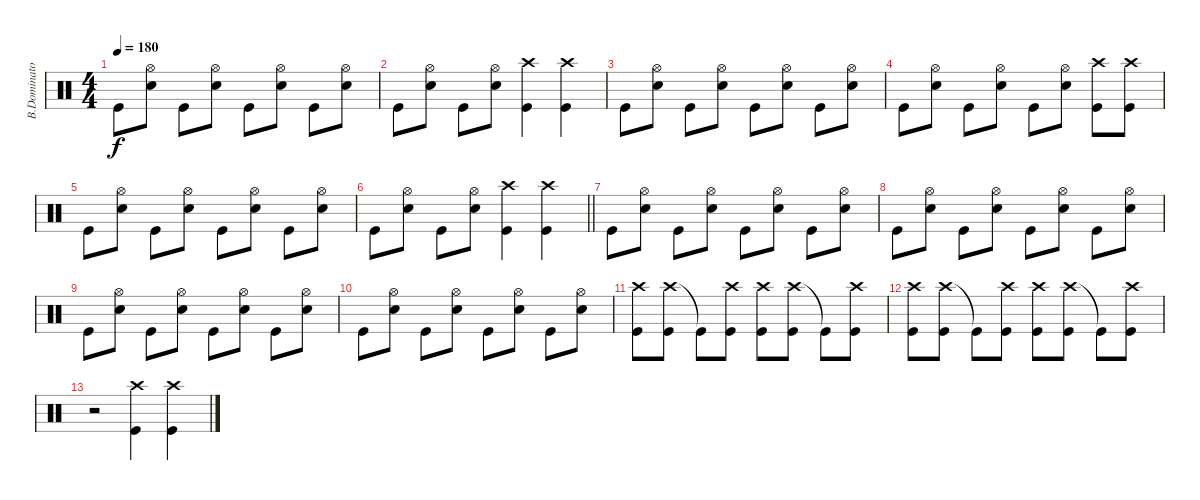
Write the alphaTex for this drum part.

\track ("B.Dominator" "B.Dominato") {instrument percussion}
\staff {score}
\articulation defaults
\ts (4 4)
\tempo 180
\clef neutral
\ks c "Kick (hit)".8{dy f}
("Hi-Hat (open)" "Snare (hit) 2").8 "Kick (hit)".8 ("Hi-Hat (open)" "Snare (hit) 2").8 "Kick (hit)".8 ("Hi-Hat (open)" "Snare (hit) 2").8 "Kick (hit)".8 ("Hi-Hat (open)" "Snare (hit) 2").8 |
"Kick (hit)".8 ("Hi-Hat (open)" "Snare (hit) 2").8 "Kick (hit)".8 ("Hi-Hat (open)" "Snare (hit) 2").8 ("Crash high (hit)" "Kick (hit)").4 ("Crash high (hit)" "Kick (hit)").4 |
"Kick (hit)".8 ("Hi-Hat (open)" "Snare (hit) 2").8 "Kick (hit)".8 ("Hi-Hat (open)" "Snare (hit) 2").8 "Kick (hit)".8 ("Hi-Hat (open)" "Snare (hit) 2").8 "Kick (hit)".8 ("Hi-Hat (open)" "Snare (hit) 2").8 |
"Kick (hit)".8 ("Hi-Hat (open)" "Snare (hit) 2").8 "Kick (hit)".8 ("Hi-Hat (open)" "Snare (hit) 2").8 "Kick (hit)".8 ("Hi-Hat (open)" "Snare (hit) 2").8 ("Crash high (hit)" "Kick (hit)").8 ("Crash high (hit)" "Kick (hit)").8 |
"Kick (hit)".8 ("Hi-Hat (open)" "Snare (hit) 2").8 "Kick (hit)".8 ("Hi-Hat (open)" "Snare (hit) 2").8 "Kick (hit)".8 ("Hi-Hat (open)" "Snare (hit) 2").8 "Kick (hit)".8 ("Hi-Hat (open)" "Snare (hit) 2").8 |
\barLineRight lightlight "Kick (hit)".8
("Hi-Hat (open)" "Snare (hit) 2").8 "Kick (hit)".8 ("Hi-Hat (open)" "Snare (hit) 2").8 ("Crash high (hit)" "Kick (hit)").4 ("Crash high (hit)" "Kick (hit)").4 |
"Kick (hit)".8 ("Hi-Hat (open)" "Snare (hit) 2").8 "Kick (hit)".8 ("Hi-Hat (open)" "Snare (hit) 2").8 "Kick (hit)".8 ("Hi-Hat (open)" "Snare (hit) 2").8 "Kick (hit)".8 ("Hi-Hat (open)" "Snare (hit) 2").8 |
"Kick (hit)".8 ("Hi-Hat (open)" "Snare (hit) 2").8 "Kick (hit)".8 ("Hi-Hat (open)" "Snare (hit) 2").8 "Kick (hit)".8 ("Hi-Hat (open)" "Snare (hit) 2").8 "Kick (hit)".8 ("Hi-Hat (open)" "Snare (hit) 2").8 |
"Kick (hit)".8 ("Hi-Hat (open)" "Snare (hit) 2").8 "Kick (hit)".8 ("Hi-Hat (open)" "Snare (hit) 2").8 "Kick (hit)".8 ("Hi-Hat (open)" "Snare (hit) 2").8 "Kick (hit)".8 ("Hi-Hat (open)" "Snare (hit) 2").8 |
"Kick (hit)".8 ("Hi-Hat (open)" "Snare (hit) 2").8 "Kick (hit)".8 ("Hi-Hat (open)" "Snare (hit) 2").8 "Kick (hit)".8 ("Hi-Hat (open)" "Snare (hit) 2").8 "Kick (hit)".8 ("Hi-Hat (open)" "Snare (hit) 2").8 |
("Crash high (hit)" "Kick (hit)").8 ("Crash high (hit)" "Kick (hit)").8 "Kick (hit)"{t}.8 ("Crash high (hit)" "Kick (hit)").8 ("Crash high (hit)" "Kick (hit)").8 ("Crash high (hit)" "Kick (hit)").8 "Kick (hit)"{t}.8 ("Crash high (hit)" "Kick (hit)").8 |
("Crash high (hit)" "Kick (hit)").8 ("Crash high (hit)" "Kick (hit)").8 "Kick (hit)"{t}.8 ("Crash high (hit)" "Kick (hit)").8 ("Crash high (hit)" "Kick (hit)").8 ("Crash high (hit)" "Kick (hit)").8 "Kick (hit)"{t}.8 ("Crash high (hit)" "Kick (hit)").8 |
r.2 ("Crash high (hit)" "Kick (hit)").4 ("Crash high (hit)" "Kick (hit)").4
